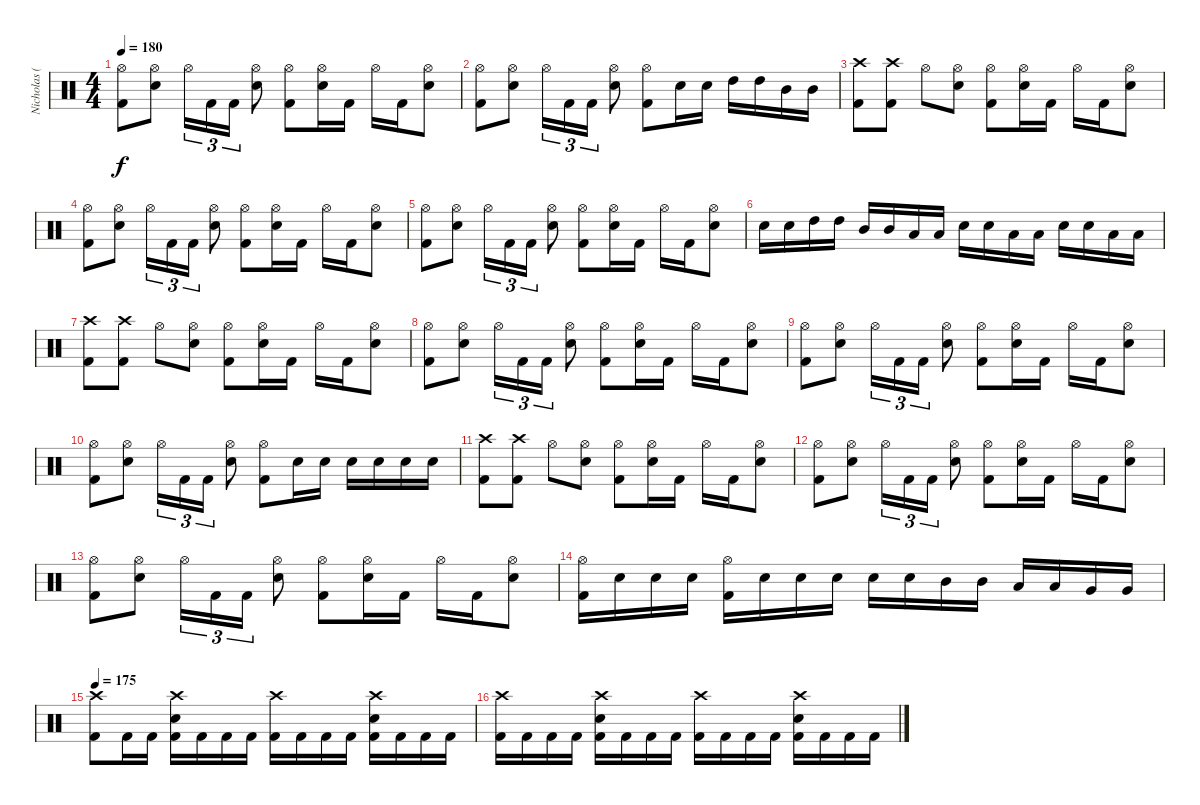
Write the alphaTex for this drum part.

\track ("Nicholas (Drums)" "Nicholas (") {instrument percussion}
\staff {score}
\articulation defaults
\ts (4 4)
\tempo 180
\clef neutral
\ks c
("Hi-Hat (open)" "Kick (hit) 2").8{dy f} ("Hi-Hat (open)" "Electric Snare (hit)").8 "Hi-Hat (open)".16{tu (3 2)} "Kick (hit) 2".16{tu (3 2)} "Kick (hit) 2".16{tu (3 2)} ("Hi-Hat (open)" "Electric Snare (hit)").8 ("Hi-Hat (open)" "Kick (hit) 2").8 ("Hi-Hat (open)" "Electric Snare (hit)").16 "Kick (hit) 2".16 "Hi-Hat (open)".16 "Kick (hit) 2".16 ("Hi-Hat (open)" "Electric Snare (hit)").8 |
("Hi-Hat (open)" "Kick (hit) 2").8 ("Hi-Hat (open)" "Electric Snare (hit)").8 "Hi-Hat (open)".16{tu (3 2)} "Kick (hit) 2".16{tu (3 2)} "Kick (hit) 2".16{tu (3 2)} ("Hi-Hat (open)" "Electric Snare (hit)").8 ("Hi-Hat (open)" "Kick (hit) 2").8 "Electric Snare (hit)".16 "Electric Snare (hit)".16 "High Tom (hit)".16 "High Tom (hit)".16 "Mid Tom (hit)".16 "Mid Tom (hit)".16 |
("Crash high (hit)" "Kick (hit) 2").8 ("Crash high (hit)" "Kick (hit) 2").8 "Hi-Hat (open)".8 ("Hi-Hat (open)" "Electric Snare (hit)").8 ("Hi-Hat (open)" "Kick (hit) 2").8 ("Hi-Hat (open)" "Electric Snare (hit)").16 "Kick (hit) 2".16 "Hi-Hat (open)".16 "Kick (hit) 2".16 ("Hi-Hat (open)" "Electric Snare (hit)").8 |
("Hi-Hat (open)" "Kick (hit) 2").8 ("Hi-Hat (open)" "Electric Snare (hit)").8 "Hi-Hat (open)".16{tu (3 2)} "Kick (hit) 2".16{tu (3 2)} "Kick (hit) 2".16{tu (3 2)} ("Hi-Hat (open)" "Electric Snare (hit)").8 ("Hi-Hat (open)" "Kick (hit) 2").8 ("Hi-Hat (open)" "Electric Snare (hit)").16 "Kick (hit) 2".16 "Hi-Hat (open)".16 "Kick (hit) 2".16 ("Hi-Hat (open)" "Electric Snare (hit)").8 |
("Hi-Hat (open)" "Kick (hit) 2").8 ("Hi-Hat (open)" "Electric Snare (hit)").8 "Hi-Hat (open)".16{tu (3 2)} "Kick (hit) 2".16{tu (3 2)} "Kick (hit) 2".16{tu (3 2)} ("Hi-Hat (open)" "Electric Snare (hit)").8 ("Hi-Hat (open)" "Kick (hit) 2").8 ("Hi-Hat (open)" "Electric Snare (hit)").16 "Kick (hit) 2".16 "Hi-Hat (open)".16 "Kick (hit) 2".16 ("Hi-Hat (open)" "Electric Snare (hit)").8 |
"Electric Snare (hit)".16 "Electric Snare (hit)".16 "High Tom (hit)".16 "High Tom (hit)".16 "Mid Tom (hit)".16 "Mid Tom (hit)".16 "Low Tom (hit)".16 "Low Tom (hit)".16 "Electric Snare (hit)".16 "Electric Snare (hit)".16 "Low Tom (hit)".16 "Low Tom (hit)".16 "Electric Snare (hit)".16 "Electric Snare (hit)".16 "Low Tom (hit)".16 "Low Tom (hit)".16 |
("Crash high (hit)" "Kick (hit) 2").8 ("Crash high (hit)" "Kick (hit) 2").8 "Hi-Hat (open)".8 ("Hi-Hat (open)" "Electric Snare (hit)").8 ("Hi-Hat (open)" "Kick (hit) 2").8 ("Hi-Hat (open)" "Electric Snare (hit)").16 "Kick (hit) 2".16 "Hi-Hat (open)".16 "Kick (hit) 2".16 ("Hi-Hat (open)" "Electric Snare (hit)").8 |
("Hi-Hat (open)" "Kick (hit) 2").8 ("Hi-Hat (open)" "Electric Snare (hit)").8 "Hi-Hat (open)".16{tu (3 2)} "Kick (hit) 2".16{tu (3 2)} "Kick (hit) 2".16{tu (3 2)} ("Hi-Hat (open)" "Electric Snare (hit)").8 ("Hi-Hat (open)" "Kick (hit) 2").8 ("Hi-Hat (open)" "Electric Snare (hit)").16 "Kick (hit) 2".16 "Hi-Hat (open)".16 "Kick (hit) 2".16 ("Hi-Hat (open)" "Electric Snare (hit)").8 |
("Hi-Hat (open)" "Kick (hit) 2").8 ("Hi-Hat (open)" "Electric Snare (hit)").8 "Hi-Hat (open)".16{tu (3 2)} "Kick (hit) 2".16{tu (3 2)} "Kick (hit) 2".16{tu (3 2)} ("Hi-Hat (open)" "Electric Snare (hit)").8 ("Hi-Hat (open)" "Kick (hit) 2").8 ("Hi-Hat (open)" "Electric Snare (hit)").16 "Kick (hit) 2".16 "Hi-Hat (open)".16 "Kick (hit) 2".16 ("Hi-Hat (open)" "Electric Snare (hit)").8 |
("Hi-Hat (open)" "Kick (hit) 2").8 ("Hi-Hat (open)" "Electric Snare (hit)").8 "Hi-Hat (open)".16{tu (3 2)} "Kick (hit) 2".16{tu (3 2)} "Kick (hit) 2".16{tu (3 2)} ("Hi-Hat (open)" "Electric Snare (hit)").8 ("Hi-Hat (open)" "Kick (hit) 2").8 "Electric Snare (hit)".16 "Electric Snare (hit)".16 "Electric Snare (hit)".16 "Electric Snare (hit)".16 "Electric Snare (hit)".16 "Electric Snare (hit)".16 |
("Crash high (hit)" "Kick (hit) 2").8 ("Crash high (hit)" "Kick (hit) 2").8 "Hi-Hat (open)".8 ("Hi-Hat (open)" "Electric Snare (hit)").8 ("Hi-Hat (open)" "Kick (hit) 2").8 ("Hi-Hat (open)" "Electric Snare (hit)").16 "Kick (hit) 2".16 "Hi-Hat (open)".16 "Kick (hit) 2".16 ("Hi-Hat (open)" "Electric Snare (hit)").8 |
("Hi-Hat (open)" "Kick (hit) 2").8 ("Hi-Hat (open)" "Electric Snare (hit)").8 "Hi-Hat (open)".16{tu (3 2)} "Kick (hit) 2".16{tu (3 2)} "Kick (hit) 2".16{tu (3 2)} ("Hi-Hat (open)" "Electric Snare (hit)").8 ("Hi-Hat (open)" "Kick (hit) 2").8 ("Hi-Hat (open)" "Electric Snare (hit)").16 "Kick (hit) 2".16 "Hi-Hat (open)".16 "Kick (hit) 2".16 ("Hi-Hat (open)" "Electric Snare (hit)").8 |
("Hi-Hat (open)" "Kick (hit) 2").8 ("Hi-Hat (open)" "Electric Snare (hit)").8 "Hi-Hat (open)".16{tu (3 2)} "Kick (hit) 2".16{tu (3 2)} "Kick (hit) 2".16{tu (3 2)} ("Hi-Hat (open)" "Electric Snare (hit)").8 ("Hi-Hat (open)" "Kick (hit) 2").8 ("Hi-Hat (open)" "Electric Snare (hit)").16 "Kick (hit) 2".16 "Hi-Hat (open)".16 "Kick (hit) 2".16 ("Hi-Hat (open)" "Electric Snare (hit)").8 |
("Hi-Hat (open)" "Kick (hit) 2").16 "Electric Snare (hit)".16 "Electric Snare (hit)".16 "Electric Snare (hit)".16 ("Hi-Hat (open)" "Kick (hit) 2").16 "Electric Snare (hit)".16 "Electric Snare (hit)".16 "Electric Snare (hit)".16 "Electric Snare (hit)".16 "Electric Snare (hit)".16 "Mid Tom (hit)".16 "Mid Tom (hit)".16 "Low Tom (hit)".16 "Low Tom (hit)".16 "Very Low Tom (hit)".16 "Very Low Tom (hit)".16 |
\tempo 175
("Crash high (hit)" "Kick (hit) 2").8 "Kick (hit) 2".16 "Kick (hit) 2".16 ("Crash high (hit)" "Electric Snare (hit)" "Kick (hit) 2").16 "Kick (hit) 2".16 "Kick (hit) 2".16 "Kick (hit) 2".16 ("Crash high (hit)" "Kick (hit) 2").16 "Kick (hit) 2".16 "Kick (hit) 2".16 "Kick (hit) 2".16 ("Crash high (hit)" "Electric Snare (hit)" "Kick (hit) 2").16 "Kick (hit) 2".16 "Kick (hit) 2".16 "Kick (hit) 2".16 |
("Crash high (hit)" "Kick (hit) 2").16 "Kick (hit) 2".16 "Kick (hit) 2".16 "Kick (hit) 2".16 ("Crash high (hit)" "Electric Snare (hit)" "Kick (hit) 2").16 "Kick (hit) 2".16 "Kick (hit) 2".16 "Kick (hit) 2".16 ("Crash high (hit)" "Kick (hit) 2").16 "Kick (hit) 2".16 "Kick (hit) 2".16 "Kick (hit) 2".16 ("Crash high (hit)" "Electric Snare (hit)" "Kick (hit) 2").16 "Kick (hit) 2".16 "Kick (hit) 2".16 "Kick (hit) 2".16
